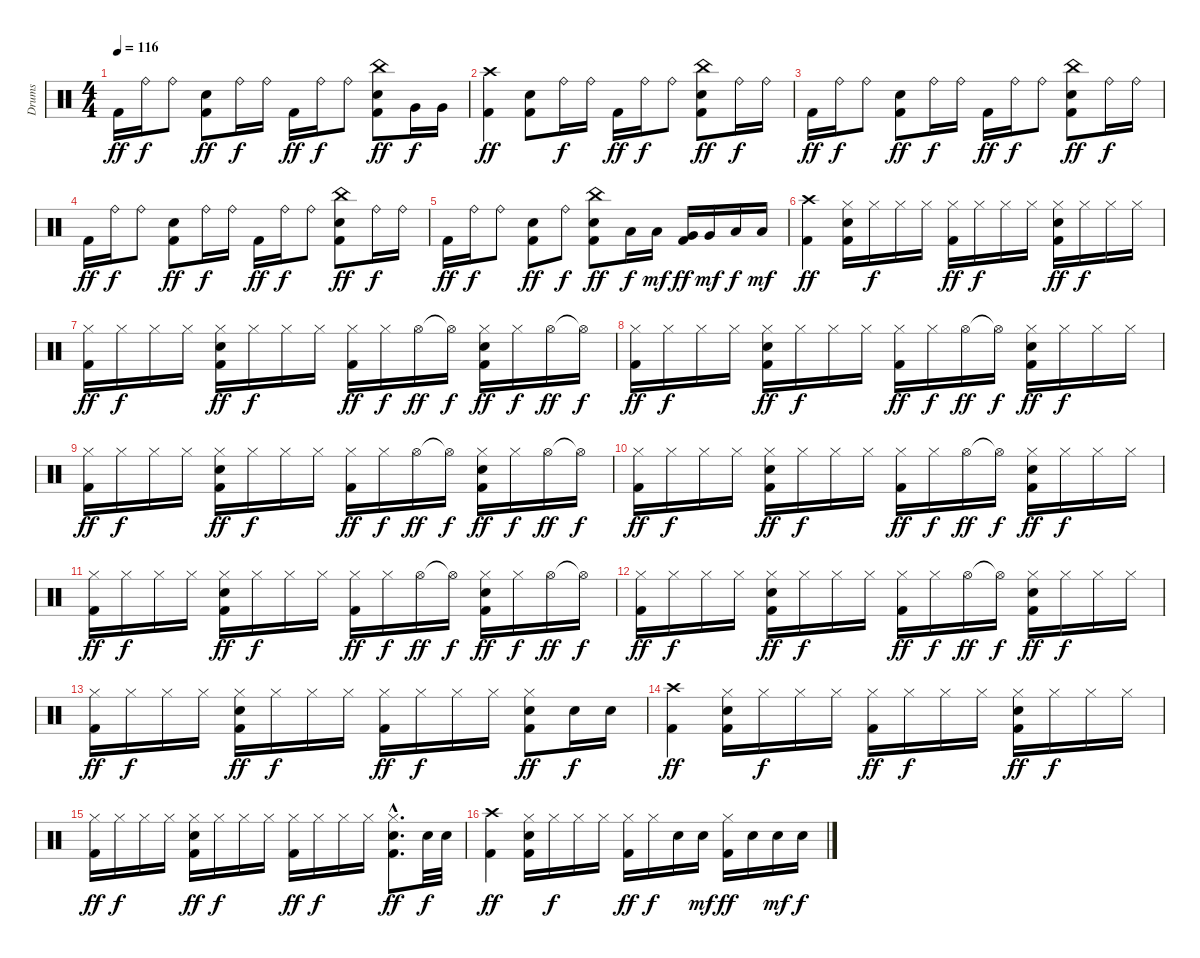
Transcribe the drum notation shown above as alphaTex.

\track ("Drums" "Drums") {instrument percussion}
\staff {score}
\articulation defaults
\ts (4 4)
\tempo 116
\clef neutral
\ks c "Kick (hit) 2".16{dy ff} "Ride (bell)".16{dy f} "Ride (bell)".8
("Snare (hit) 2" "Kick (hit) 2").8{dy ff} "Ride (bell)".16{dy f} "Ride (bell)".16 "Kick (hit) 2".16{dy ff} "Ride (bell)".16{dy f} "Ride (bell)".8 ("China (hit)" "Snare (hit) 2" "Kick (hit) 2").8{dy ff} "Very Low Tom (hit)".16{dy f} "Very Low Tom (hit)".16 |
("Crash high (hit)" "Kick (hit) 2").4{dy ff} ("Snare (hit) 2" "Kick (hit) 2").8 "Ride (bell)".16{dy f} "Ride (bell)".16 "Kick (hit) 2".16{dy ff} "Ride (bell)".16{dy f} "Ride (bell)".8 ("China (hit)" "Snare (hit) 2" "Kick (hit) 2").8{dy ff} "Ride (bell)".16{dy f} "Ride (bell)".16 |
"Kick (hit) 2".16{dy ff} "Ride (bell)".16{dy f} "Ride (bell)".8 ("Snare (hit) 2" "Kick (hit) 2").8{dy ff} "Ride (bell)".16{dy f} "Ride (bell)".16 "Kick (hit) 2".16{dy ff} "Ride (bell)".16{dy f} "Ride (bell)".8 ("China (hit)" "Snare (hit) 2" "Kick (hit) 2").8{dy ff} "Ride (bell)".16{dy f} "Ride (bell)".16 |
"Kick (hit) 2".16{dy ff} "Ride (bell)".16{dy f} "Ride (bell)".8 ("Snare (hit) 2" "Kick (hit) 2").8{dy ff} "Ride (bell)".16{dy f} "Ride (bell)".16 "Kick (hit) 2".16{dy ff} "Ride (bell)".16{dy f} "Ride (bell)".8 ("China (hit)" "Snare (hit) 2" "Kick (hit) 2").8{dy ff} "Ride (bell)".16{dy f} "Ride (bell)".16 |
"Kick (hit) 2".16{dy ff} "Ride (bell)".16{dy f} "Ride (bell)".8 ("Snare (hit) 2" "Kick (hit) 2").8{dy ff} "Ride (bell)".8{dy f} ("China (hit)" "Snare (hit) 2" "Kick (hit) 2").8{dy ff} "Low Tom (hit)".16{dy f} "Low Tom (hit)".16{dy mf} ("Very Low Tom (hit)" "Kick (hit) 2").16{dy ff} "Very Low Tom (hit)".16{dy mf} "Low Floor Tom (hit)".16{dy f} "Low Floor Tom (hit)".16{dy mf} |
("Crash high (hit)" "Kick (hit) 2").4{dy ff} ("Hi-Hat (closed)" "Snare (hit) 2" "Kick (hit) 2").16 "Hi-Hat (closed)".16{dy f} "Hi-Hat (closed)".16 "Hi-Hat (closed)".16 ("Hi-Hat (closed)" "Kick (hit) 2").16{dy ff} "Hi-Hat (closed)".16{dy f} "Hi-Hat (closed)".16 "Hi-Hat (closed)".16 ("Hi-Hat (closed)" "Snare (hit) 2" "Kick (hit) 2").16{dy ff} "Hi-Hat (closed)".16{dy f} "Hi-Hat (closed)".16 "Hi-Hat (closed)".16 |
("Hi-Hat (closed)" "Kick (hit) 2").16{dy ff} "Hi-Hat (closed)".16{dy f} "Hi-Hat (closed)".16 "Hi-Hat (closed)".16 ("Hi-Hat (closed)" "Snare (hit) 2" "Kick (hit) 2").16{dy ff} "Hi-Hat (closed)".16{dy f} "Hi-Hat (closed)".16 "Hi-Hat (closed)".16 ("Hi-Hat (closed)" "Kick (hit) 2").16{dy ff} "Hi-Hat (closed)".16{dy f} "Hi-Hat (open)".16{dy ff} "Hi-Hat (open)"{t}.16{dy f} ("Hi-Hat (closed)" "Snare (hit) 2" "Kick (hit) 2").16{dy ff} "Hi-Hat (closed)".16{dy f} "Hi-Hat (open)".16{dy ff} "Hi-Hat (open)"{t}.16{dy f} |
("Hi-Hat (closed)" "Kick (hit) 2").16{dy ff} "Hi-Hat (closed)".16{dy f} "Hi-Hat (closed)".16 "Hi-Hat (closed)".16 ("Hi-Hat (closed)" "Snare (hit) 2" "Kick (hit) 2").16{dy ff} "Hi-Hat (closed)".16{dy f} "Hi-Hat (closed)".16 "Hi-Hat (closed)".16 ("Hi-Hat (closed)" "Kick (hit) 2").16{dy ff} "Hi-Hat (closed)".16{dy f} "Hi-Hat (open)".16{dy ff} "Hi-Hat (open)"{t}.16{dy f} ("Hi-Hat (closed)" "Snare (hit) 2" "Kick (hit) 2").16{dy ff} "Hi-Hat (closed)".16{dy f} "Hi-Hat (closed)".16 "Hi-Hat (closed)".16 |
("Hi-Hat (closed)" "Kick (hit) 2").16{dy ff} "Hi-Hat (closed)".16{dy f} "Hi-Hat (closed)".16 "Hi-Hat (closed)".16 ("Hi-Hat (closed)" "Snare (hit) 2" "Kick (hit) 2").16{dy ff} "Hi-Hat (closed)".16{dy f} "Hi-Hat (closed)".16 "Hi-Hat (closed)".16 ("Hi-Hat (closed)" "Kick (hit) 2").16{dy ff} "Hi-Hat (closed)".16{dy f} "Hi-Hat (open)".16{dy ff} "Hi-Hat (open)"{t}.16{dy f} ("Hi-Hat (closed)" "Snare (hit) 2" "Kick (hit) 2").16{dy ff} "Hi-Hat (closed)".16{dy f} "Hi-Hat (open)".16{dy ff} "Hi-Hat (open)"{t}.16{dy f} |
("Hi-Hat (closed)" "Kick (hit) 2").16{dy ff} "Hi-Hat (closed)".16{dy f} "Hi-Hat (closed)".16 "Hi-Hat (closed)".16 ("Hi-Hat (closed)" "Snare (hit) 2" "Kick (hit) 2").16{dy ff} "Hi-Hat (closed)".16{dy f} "Hi-Hat (closed)".16 "Hi-Hat (closed)".16 ("Hi-Hat (closed)" "Kick (hit) 2").16{dy ff} "Hi-Hat (closed)".16{dy f} "Hi-Hat (open)".16{dy ff} "Hi-Hat (open)"{t}.16{dy f} ("Hi-Hat (closed)" "Snare (hit) 2" "Kick (hit) 2").16{dy ff} "Hi-Hat (closed)".16{dy f} "Hi-Hat (closed)".16 "Hi-Hat (closed)".16 |
("Hi-Hat (closed)" "Kick (hit) 2").16{dy ff} "Hi-Hat (closed)".16{dy f} "Hi-Hat (closed)".16 "Hi-Hat (closed)".16 ("Hi-Hat (closed)" "Snare (hit) 2" "Kick (hit) 2").16{dy ff} "Hi-Hat (closed)".16{dy f} "Hi-Hat (closed)".16 "Hi-Hat (closed)".16 ("Hi-Hat (closed)" "Kick (hit) 2").16{dy ff} "Hi-Hat (closed)".16{dy f} "Hi-Hat (open)".16{dy ff} "Hi-Hat (open)"{t}.16{dy f} ("Hi-Hat (closed)" "Snare (hit) 2" "Kick (hit) 2").16{dy ff} "Hi-Hat (closed)".16{dy f} "Hi-Hat (open)".16{dy ff} "Hi-Hat (open)"{t}.16{dy f} |
("Hi-Hat (closed)" "Kick (hit) 2").16{dy ff} "Hi-Hat (closed)".16{dy f} "Hi-Hat (closed)".16 "Hi-Hat (closed)".16 ("Hi-Hat (closed)" "Snare (hit) 2" "Kick (hit) 2").16{dy ff} "Hi-Hat (closed)".16{dy f} "Hi-Hat (closed)".16 "Hi-Hat (closed)".16 ("Hi-Hat (closed)" "Kick (hit) 2").16{dy ff} "Hi-Hat (closed)".16{dy f} "Hi-Hat (open)".16{dy ff} "Hi-Hat (open)"{t}.16{dy f} ("Hi-Hat (closed)" "Snare (hit) 2" "Kick (hit) 2").16{dy ff} "Hi-Hat (closed)".16{dy f} "Hi-Hat (closed)".16 "Hi-Hat (closed)".16 |
("Hi-Hat (closed)" "Kick (hit) 2").16{dy ff} "Hi-Hat (closed)".16{dy f} "Hi-Hat (closed)".16 "Hi-Hat (closed)".16 ("Hi-Hat (closed)" "Snare (hit) 2" "Kick (hit) 2").16{dy ff} "Hi-Hat (closed)".16{dy f} "Hi-Hat (closed)".16 "Hi-Hat (closed)".16 ("Hi-Hat (closed)" "Kick (hit) 2").16{dy ff} "Hi-Hat (closed)".16{dy f} "Hi-Hat (closed)".16 "Hi-Hat (closed)".16 ("Hi-Hat (closed)" "Snare (hit) 2" "Kick (hit) 2").8{dy ff} "Snare (hit) 2".16{dy f} "Snare (hit) 2".16 |
("Crash high (hit)" "Kick (hit) 2").4{dy ff} ("Hi-Hat (closed)" "Snare (hit) 2" "Kick (hit) 2").16 "Hi-Hat (closed)".16{dy f} "Hi-Hat (closed)".16 "Hi-Hat (closed)".16 ("Hi-Hat (closed)" "Kick (hit) 2").16{dy ff} "Hi-Hat (closed)".16{dy f} "Hi-Hat (closed)".16 "Hi-Hat (closed)".16 ("Hi-Hat (closed)" "Snare (hit) 2" "Kick (hit) 2").16{dy ff} "Hi-Hat (closed)".16{dy f} "Hi-Hat (closed)".16 "Hi-Hat (closed)".16 |
("Hi-Hat (closed)" "Kick (hit) 2").16{dy ff} "Hi-Hat (closed)".16{dy f} "Hi-Hat (closed)".16 "Hi-Hat (closed)".16 ("Hi-Hat (closed)" "Snare (hit) 2" "Kick (hit) 2").16{dy ff} "Hi-Hat (closed)".16{dy f} "Hi-Hat (closed)".16 "Hi-Hat (closed)".16 ("Hi-Hat (closed)" "Kick (hit) 2").16{dy ff} "Hi-Hat (closed)".16{dy f} "Hi-Hat (closed)".16 "Hi-Hat (closed)".16 ("Hi-Hat (closed)"{hac} "Snare (hit) 2"{hac} "Kick (hit) 2"{hac}).8{d dy ff} "Snare (hit) 2".32{dy f} "Snare (hit) 2".32 |
("Crash high (hit)" "Kick (hit) 2").4{dy ff} ("Hi-Hat (closed)" "Snare (hit) 2" "Kick (hit) 2").16 "Hi-Hat (closed)".16{dy f} "Hi-Hat (closed)".16 "Hi-Hat (closed)".16 ("Hi-Hat (closed)" "Kick (hit) 2").16{dy ff} "Hi-Hat (closed)".16{dy f} "Snare (hit) 2".16 "Snare (hit) 2".16{dy mf} ("Hi-Hat (closed)" "Kick (hit) 2").16{dy ff} "Snare (hit) 2".16 "Snare (hit) 2".16{dy mf} "Snare (hit) 2".16{dy f}
